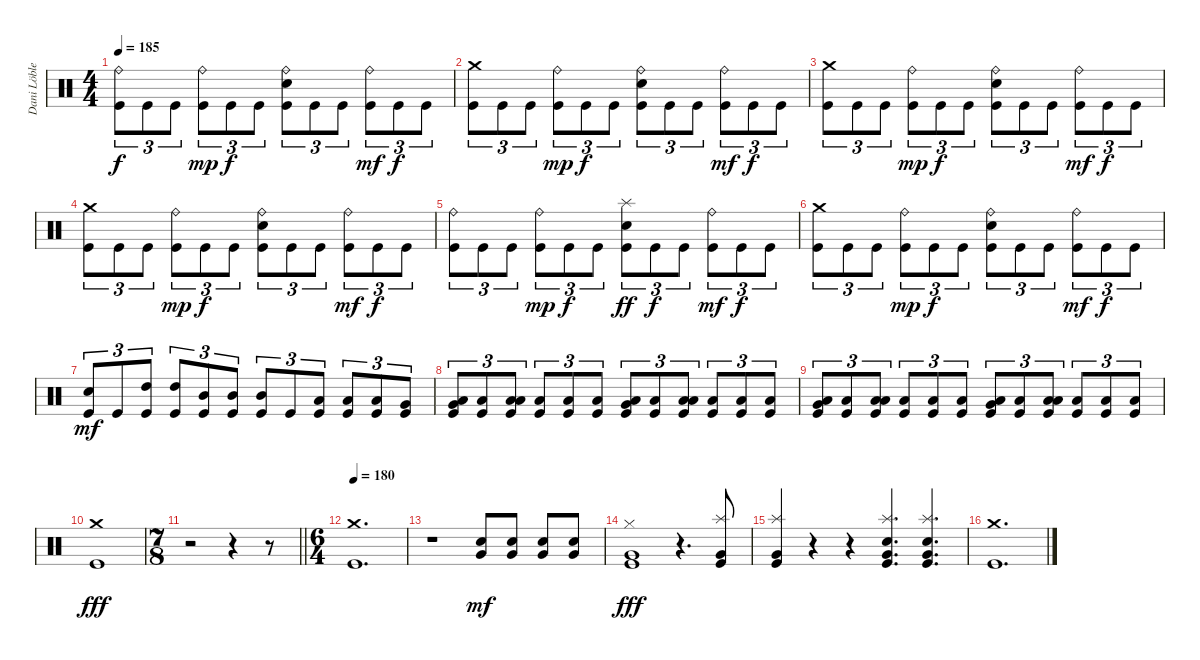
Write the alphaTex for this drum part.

\track ("Dani Löble" "Dani Löble") {instrument percussion}
\staff {score}
\articulation defaults
\ts (4 4)
\tempo 185
\clef neutral
\ks c
("Ride (bell)" "Kick (hit)").8{tu (3 2) dy f} "Kick (hit)".8{tu (3 2)} "Kick (hit)".8{tu (3 2)} ("Ride (bell)" "Kick (hit)").8{tu (3 2) dy mp} "Kick (hit)".8{tu (3 2) dy f} "Kick (hit)".8{tu (3 2)} ("Ride (bell)" "Electric Snare (hit)" "Kick (hit)").8{tu (3 2)} "Kick (hit)".8{tu (3 2)} "Kick (hit)".8{tu (3 2)} ("Ride (bell)" "Kick (hit)").8{tu (3 2) dy mf} "Kick (hit)".8{tu (3 2) dy f} "Kick (hit)".8{tu (3 2)} |
("Crash medium (hit)" "Kick (hit)").8{tu (3 2)} "Kick (hit)".8{tu (3 2)} "Kick (hit)".8{tu (3 2)} ("Ride (bell)" "Kick (hit)").8{tu (3 2) dy mp} "Kick (hit)".8{tu (3 2) dy f} "Kick (hit)".8{tu (3 2)} ("Ride (bell)" "Electric Snare (hit)" "Kick (hit)").8{tu (3 2)} "Kick (hit)".8{tu (3 2)} "Kick (hit)".8{tu (3 2)} ("Ride (bell)" "Kick (hit)").8{tu (3 2) dy mf} "Kick (hit)".8{tu (3 2) dy f} "Kick (hit)".8{tu (3 2)} |
("Crash medium (hit)" "Kick (hit)").8{tu (3 2)} "Kick (hit)".8{tu (3 2)} "Kick (hit)".8{tu (3 2)} ("Ride (bell)" "Kick (hit)").8{tu (3 2) dy mp} "Kick (hit)".8{tu (3 2) dy f} "Kick (hit)".8{tu (3 2)} ("Ride (bell)" "Electric Snare (hit)" "Kick (hit)").8{tu (3 2)} "Kick (hit)".8{tu (3 2)} "Kick (hit)".8{tu (3 2)} ("Ride (bell)" "Kick (hit)").8{tu (3 2) dy mf} "Kick (hit)".8{tu (3 2) dy f} "Kick (hit)".8{tu (3 2)} |
("Crash medium (hit)" "Kick (hit)").8{tu (3 2)} "Kick (hit)".8{tu (3 2)} "Kick (hit)".8{tu (3 2)} ("Ride (bell)" "Kick (hit)").8{tu (3 2) dy mp} "Kick (hit)".8{tu (3 2) dy f} "Kick (hit)".8{tu (3 2)} ("Ride (bell)" "Electric Snare (hit)" "Kick (hit)").8{tu (3 2)} "Kick (hit)".8{tu (3 2)} "Kick (hit)".8{tu (3 2)} ("Ride (bell)" "Kick (hit)").8{tu (3 2) dy mf} "Kick (hit)".8{tu (3 2) dy f} "Kick (hit)".8{tu (3 2)} |
("Ride (bell)" "Kick (hit)").8{tu (3 2)} "Kick (hit)".8{tu (3 2)} "Kick (hit)".8{tu (3 2)} ("Ride (bell)" "Kick (hit)").8{tu (3 2) dy mp} "Kick (hit)".8{tu (3 2) dy f} "Kick (hit)".8{tu (3 2)} ("Splash (hit)" "Electric Snare (hit)" "Kick (hit)").8{tu (3 2) dy ff} "Kick (hit)".8{tu (3 2) dy f} "Kick (hit)".8{tu (3 2)} ("Ride (bell)" "Kick (hit)").8{tu (3 2) dy mf} "Kick (hit)".8{tu (3 2) dy f} "Kick (hit)".8{tu (3 2)} |
("Crash medium (hit)" "Kick (hit)").8{tu (3 2)} "Kick (hit)".8{tu (3 2)} "Kick (hit)".8{tu (3 2)} ("Ride (bell)" "Kick (hit)").8{tu (3 2) dy mp} "Kick (hit)".8{tu (3 2) dy f} "Kick (hit)".8{tu (3 2)} ("Ride (bell)" "Electric Snare (hit)" "Kick (hit)").8{tu (3 2)} "Kick (hit)".8{tu (3 2)} "Kick (hit)".8{tu (3 2)} ("Ride (bell)" "Kick (hit)").8{tu (3 2) dy mf} "Kick (hit)".8{tu (3 2) dy f} "Kick (hit)".8{tu (3 2)} |
("Electric Snare (hit)" "Kick (hit)").8{tu (3 2) dy mf} "Kick (hit)".8{tu (3 2)} ("High Tom (hit)" "Kick (hit)").8{tu (3 2)} ("High Tom (hit)" "Kick (hit)").8{tu (3 2)} ("Mid Tom (hit)" "Kick (hit)").8{tu (3 2)} ("Mid Tom (hit)" "Kick (hit)").8{tu (3 2)} ("Mid Tom (hit)" "Kick (hit)").8{tu (3 2)} "Kick (hit)".8{tu (3 2)} ("Low Tom (hit)" "Kick (hit)").8{tu (3 2)} ("Low Tom (hit)" "Kick (hit)").8{tu (3 2)} ("Low Tom (hit)" "Kick (hit)").8{tu (3 2)} ("Very Low Tom (hit)" "Kick (hit)").8{tu (3 2)} |
("Very Low Tom (hit)" "Low Floor Tom (hit)" "Kick (hit)").8{tu (3 2)} ("Low Floor Tom (hit)" "Kick (hit)").8{tu (3 2)} ("Low Floor Tom (hit)" "Low Floor Tom (hit)" "Kick (hit)").8{tu (3 2)} ("Low Floor Tom (hit)" "Kick (hit)").8{tu (3 2)} ("Low Floor Tom (hit)" "Kick (hit)").8{tu (3 2)} ("Low Floor Tom (hit)" "Kick (hit)").8{tu (3 2)} ("Very Low Tom (hit)" "Low Floor Tom (hit)" "Kick (hit)").8{tu (3 2)} ("Low Floor Tom (hit)" "Kick (hit)").8{tu (3 2)} ("Low Floor Tom (hit)" "Low Floor Tom (hit)" "Kick (hit)").8{tu (3 2)} ("Low Floor Tom (hit)" "Kick (hit)").8{tu (3 2)} ("Low Floor Tom (hit)" "Kick (hit)").8{tu (3 2)} ("Low Floor Tom (hit)" "Kick (hit)").8{tu (3 2)} |
("Very Low Tom (hit)" "Low Floor Tom (hit)" "Kick (hit)").8{tu (3 2)} ("Low Floor Tom (hit)" "Kick (hit)").8{tu (3 2)} ("Low Floor Tom (hit)" "Low Floor Tom (hit)" "Kick (hit)").8{tu (3 2)} ("Low Floor Tom (hit)" "Kick (hit)").8{tu (3 2)} ("Low Floor Tom (hit)" "Kick (hit)").8{tu (3 2)} ("Low Floor Tom (hit)" "Kick (hit)").8{tu (3 2)} ("Very Low Tom (hit)" "Low Floor Tom (hit)" "Kick (hit)").8{tu (3 2)} ("Low Floor Tom (hit)" "Kick (hit)").8{tu (3 2)} ("Low Floor Tom (hit)" "Low Floor Tom (hit)" "Kick (hit)").8{tu (3 2)} ("Low Floor Tom (hit)" "Kick (hit)").8{tu (3 2)} ("Low Floor Tom (hit)" "Kick (hit)").8{tu (3 2)} ("Low Floor Tom (hit)" "Kick (hit)").8{tu (3 2)} |
("Crash medium (hit)" "Kick (hit)").1{dy fff} |
\ts (7 8)
\barLineRight lightlight
r.2 r.4 r.8 |
\ts (6 4)
\section ("" "")
\tempo 180
("Crash medium (hit)" "Kick (hit)").1{d} |
r.1 ("Electric Snare (hit)" "Very Low Tom (hit)").8{dy mf} ("Electric Snare (hit)" "Very Low Tom (hit)").8 ("Electric Snare (hit)" "Very Low Tom (hit)").8 ("Electric Snare (hit)" "Very Low Tom (hit)").8 |
("Hi-Hat (closed)" "Very Low Tom (hit)" "Kick (hit)").1{dy fff} r.4{d} ("Splash (hit)" "Very Low Tom (hit)" "Kick (hit)").8 |
("Splash (hit)" "Very Low Tom (hit)" "Kick (hit)").4 r.4 r.4 ("Splash (hit)" "Electric Snare (hit)" "Very Low Tom (hit)" "Kick (hit)").4{d} ("Splash (hit)" "Electric Snare (hit)" "Very Low Tom (hit)" "Kick (hit)").4{d} |
("Crash medium (hit)" "Kick (hit)").1{d}
